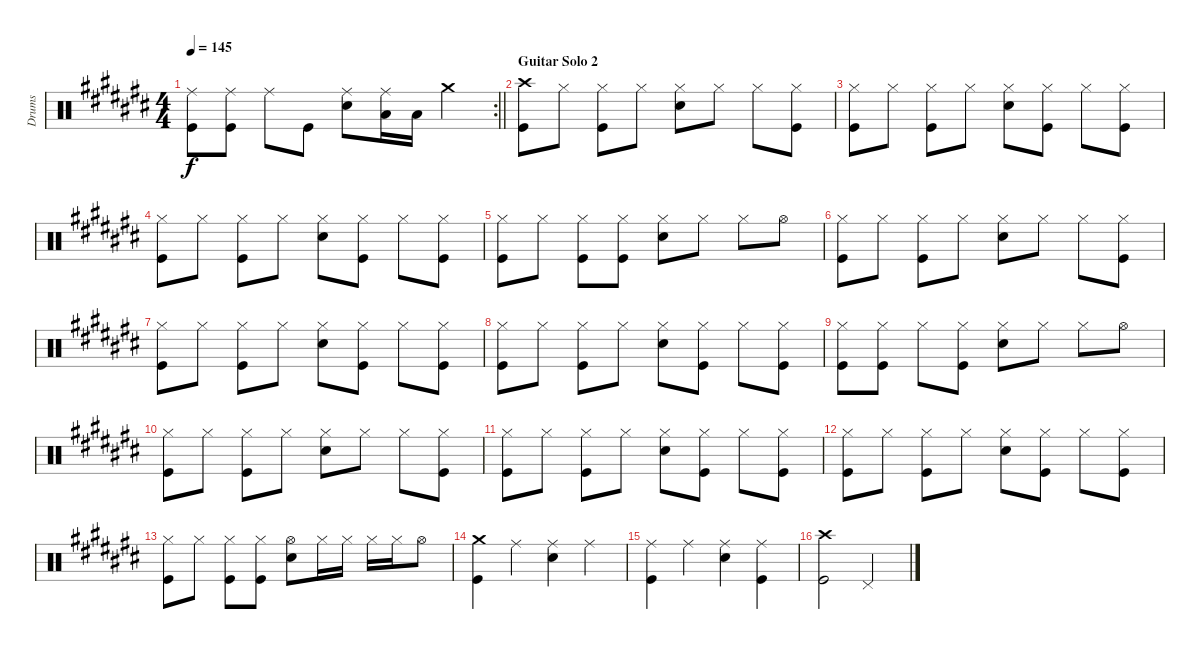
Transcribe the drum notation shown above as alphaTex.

\track ("Drums" "Drums") {instrument percussion}
\staff {score}
\articulation defaults
\rc 2
\ts (4 4)
\tempo 145
\clef neutral
\barLineRight lightlight
\ks c#
("Ride (middle)" "Kick (hit)").8{dy f} ("Ride (middle)" "Kick (hit)").8 "Ride (middle)".8 "Kick (hit)".8 ("Ride (middle)" "Snare (hit) 2").8 ("Ride (middle)" "Low Tom (hit)").16 "Low Tom (hit)".16 "Crash medium (hit)".4 |
\section ("" "Guitar Solo 2")
("Crash high (hit)" "Kick (hit)").8 "Hi-Hat (closed)".8 ("Hi-Hat (closed)" "Kick (hit)").8 "Hi-Hat (closed)".8 ("Hi-Hat (closed)" "Snare (hit) 2").8 "Hi-Hat (closed)".8 "Hi-Hat (closed)".8 ("Hi-Hat (closed)" "Kick (hit)").8 |
("Hi-Hat (closed)" "Kick (hit)").8 "Hi-Hat (closed)".8 ("Hi-Hat (closed)" "Kick (hit)").8 "Hi-Hat (closed)".8 ("Hi-Hat (closed)" "Snare (hit) 2").8 ("Hi-Hat (closed)" "Kick (hit)").8 "Hi-Hat (closed)".8 ("Hi-Hat (closed)" "Kick (hit)").8 |
("Hi-Hat (closed)" "Kick (hit)").8 "Hi-Hat (closed)".8 ("Hi-Hat (closed)" "Kick (hit)").8 "Hi-Hat (closed)".8 ("Hi-Hat (closed)" "Snare (hit) 2").8 ("Hi-Hat (closed)" "Kick (hit)").8 "Hi-Hat (closed)".8 ("Hi-Hat (closed)" "Kick (hit)").8 |
("Hi-Hat (closed)" "Kick (hit)").8 "Hi-Hat (closed)".8 ("Hi-Hat (closed)" "Kick (hit)").8 ("Hi-Hat (closed)" "Kick (hit)").8 ("Hi-Hat (closed)" "Snare (hit) 2").8 "Hi-Hat (closed)".8 "Hi-Hat (closed)".8 "Hi-Hat (open)".8 |
("Hi-Hat (closed)" "Kick (hit)").8 "Hi-Hat (closed)".8 ("Hi-Hat (closed)" "Kick (hit)").8 "Hi-Hat (closed)".8 ("Hi-Hat (closed)" "Snare (hit) 2").8 "Hi-Hat (closed)".8 "Hi-Hat (closed)".8 ("Hi-Hat (closed)" "Kick (hit)").8 |
("Hi-Hat (closed)" "Kick (hit)").8 "Hi-Hat (closed)".8 ("Hi-Hat (closed)" "Kick (hit)").8 "Hi-Hat (closed)".8 ("Hi-Hat (closed)" "Snare (hit) 2").8 ("Hi-Hat (closed)" "Kick (hit)").8 "Hi-Hat (closed)".8 ("Hi-Hat (closed)" "Kick (hit)").8 |
("Hi-Hat (closed)" "Kick (hit)").8 "Hi-Hat (closed)".8 ("Hi-Hat (closed)" "Kick (hit)").8 "Hi-Hat (closed)".8 ("Hi-Hat (closed)" "Snare (hit) 2").8 ("Hi-Hat (closed)" "Kick (hit)").8 "Hi-Hat (closed)".8 ("Hi-Hat (closed)" "Kick (hit)").8 |
("Hi-Hat (closed)" "Kick (hit)").8 ("Hi-Hat (closed)" "Kick (hit)").8 "Hi-Hat (closed)".8 ("Hi-Hat (closed)" "Kick (hit)").8 ("Hi-Hat (closed)" "Snare (hit) 2").8 "Hi-Hat (closed)".8 "Hi-Hat (closed)".8 "Hi-Hat (open)".8 |
("Hi-Hat (closed)" "Kick (hit)").8 "Hi-Hat (closed)".8 ("Hi-Hat (closed)" "Kick (hit)").8 "Hi-Hat (closed)".8 ("Hi-Hat (closed)" "Snare (hit) 2").8 "Hi-Hat (closed)".8 "Hi-Hat (closed)".8 ("Hi-Hat (closed)" "Kick (hit)").8 |
("Hi-Hat (closed)" "Kick (hit)").8 "Hi-Hat (closed)".8 ("Hi-Hat (closed)" "Kick (hit)").8 "Hi-Hat (closed)".8 ("Hi-Hat (closed)" "Snare (hit) 2").8 ("Hi-Hat (closed)" "Kick (hit)").8 "Hi-Hat (closed)".8 ("Hi-Hat (closed)" "Kick (hit)").8 |
("Hi-Hat (closed)" "Kick (hit)").8 "Hi-Hat (closed)".8 ("Hi-Hat (closed)" "Kick (hit)").8 "Hi-Hat (closed)".8 ("Hi-Hat (closed)" "Snare (hit) 2").8 ("Hi-Hat (closed)" "Kick (hit)").8 "Hi-Hat (closed)".8 ("Hi-Hat (closed)" "Kick (hit)").8 |
("Hi-Hat (closed)" "Kick (hit)").8 "Hi-Hat (closed)".8 ("Hi-Hat (closed)" "Kick (hit)").8 ("Hi-Hat (closed)" "Kick (hit)").8 ("Hi-Hat (open)" "Snare (hit) 2").8 "Hi-Hat (closed)".16 "Hi-Hat (closed)".16 "Hi-Hat (closed)".16 "Hi-Hat (closed)".16 "Hi-Hat (open)".8 |
("Crash medium (hit)" "Kick (hit)").4 "Ride (middle)".4 ("Ride (middle)" "Snare (hit) 2").4 "Ride (middle)".4 |
("Ride (middle)" "Kick (hit)").4 "Ride (middle)".4 ("Ride (middle)" "Snare (hit) 2").4 ("Ride (middle)" "Kick (hit)").4 |
("Crash high (hit)" "Kick (hit)").2 "Pedal Hi-Hat (hit)".2
